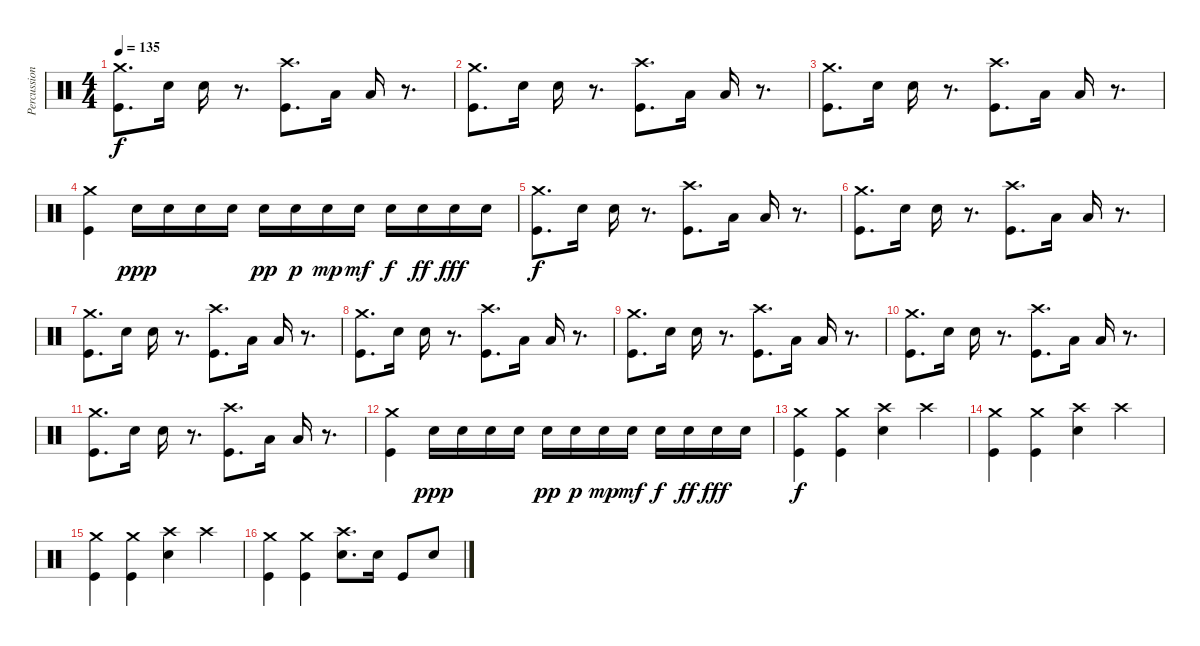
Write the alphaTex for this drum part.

\track ("Percussion - Mark Gajadhar" "Percussion") {instrument percussion}
\staff {score}
\articulation defaults
\ts (4 4)
\tempo 135
\clef neutral
\ks c
("Crash medium (hit)" "Kick (hit)").8{d dy f} "Snare (hit) 2".16 "Snare (hit) 2".16 r.8{d} ("Crash high (hit)" "Kick (hit)").8{d} "Low Tom (hit)".16 "Low Floor Tom (hit)".16 r.8{d} |
("Crash medium (hit)" "Kick (hit)").8{d} "Snare (hit) 2".16 "Snare (hit) 2".16 r.8{d} ("Crash high (hit)" "Kick (hit)").8{d} "Low Tom (hit)".16 "Low Floor Tom (hit)".16 r.8{d} |
("Crash medium (hit)" "Kick (hit)").8{d} "Snare (hit) 2".16 "Snare (hit) 2".16 r.8{d} ("Crash high (hit)" "Kick (hit)").8{d} "Low Tom (hit)".16 "Low Floor Tom (hit)".16 r.8{d} |
("Crash medium (hit)" "Kick (hit)").4 "Snare (hit) 2".16{dy ppp} "Snare (hit) 2".16 "Snare (hit) 2".16 "Snare (hit) 2".16 "Snare (hit) 2".16{dy pp} "Snare (hit) 2".16{dy p} "Snare (hit) 2".16{dy mp} "Snare (hit) 2".16{dy mf} "Snare (hit) 2".16{dy f} "Snare (hit) 2".16{dy ff} "Snare (hit) 2".16{dy fff} "Snare (hit) 2".16 |
("Crash medium (hit)" "Kick (hit)").8{d dy f} "Snare (hit) 2".16 "Snare (hit) 2".16 r.8{d} ("Crash high (hit)" "Kick (hit)").8{d} "Low Tom (hit)".16 "Low Floor Tom (hit)".16 r.8{d} |
("Crash medium (hit)" "Kick (hit)").8{d} "Snare (hit) 2".16 "Snare (hit) 2".16 r.8{d} ("Crash high (hit)" "Kick (hit)").8{d} "Low Tom (hit)".16 "Low Floor Tom (hit)".16 r.8{d} |
("Crash medium (hit)" "Kick (hit)").8{d} "Snare (hit) 2".16 "Snare (hit) 2".16 r.8{d} ("Crash high (hit)" "Kick (hit)").8{d} "Low Tom (hit)".16 "Low Floor Tom (hit)".16 r.8{d} |
("Crash medium (hit)" "Kick (hit)").8{d} "Snare (hit) 2".16 "Snare (hit) 2".16 r.8{d} ("Crash high (hit)" "Kick (hit)").8{d} "Low Tom (hit)".16 "Low Floor Tom (hit)".16 r.8{d} |
("Crash medium (hit)" "Kick (hit)").8{d} "Snare (hit) 2".16 "Snare (hit) 2".16 r.8{d} ("Crash high (hit)" "Kick (hit)").8{d} "Low Tom (hit)".16 "Low Floor Tom (hit)".16 r.8{d} |
("Crash medium (hit)" "Kick (hit)").8{d} "Snare (hit) 2".16 "Snare (hit) 2".16 r.8{d} ("Crash high (hit)" "Kick (hit)").8{d} "Low Tom (hit)".16 "Low Floor Tom (hit)".16 r.8{d} |
("Crash medium (hit)" "Kick (hit)").8{d} "Snare (hit) 2".16 "Snare (hit) 2".16 r.8{d} ("Crash high (hit)" "Kick (hit)").8{d} "Low Tom (hit)".16 "Low Floor Tom (hit)".16 r.8{d} |
("Crash medium (hit)" "Kick (hit)").4 "Snare (hit) 2".16{dy ppp} "Snare (hit) 2".16 "Snare (hit) 2".16 "Snare (hit) 2".16 "Snare (hit) 2".16{dy pp} "Snare (hit) 2".16{dy p} "Snare (hit) 2".16{dy mp} "Snare (hit) 2".16{dy mf} "Snare (hit) 2".16{dy f} "Snare (hit) 2".16{dy ff} "Snare (hit) 2".16{dy fff} "Snare (hit) 2".16 |
("Crash medium (hit)" "Kick (hit)").4{dy f} ("Crash medium (hit)" "Kick (hit)").4 ("Crash high (hit)" "Snare (hit) 2").4 "Crash high (hit)".4 |
("Crash medium (hit)" "Kick (hit)").4 ("Crash medium (hit)" "Kick (hit)").4 ("Crash high (hit)" "Snare (hit) 2").4 "Crash high (hit)".4 |
("Crash medium (hit)" "Kick (hit)").4 ("Crash medium (hit)" "Kick (hit)").4 ("Crash high (hit)" "Snare (hit) 2").4 "Crash high (hit)".4 |
("Crash medium (hit)" "Kick (hit)").4 ("Crash medium (hit)" "Kick (hit)").4 ("Crash high (hit)" "Snare (hit) 2").8{d} "Snare (hit) 2".16 "Kick (hit)".8 "Snare (hit) 2".8
